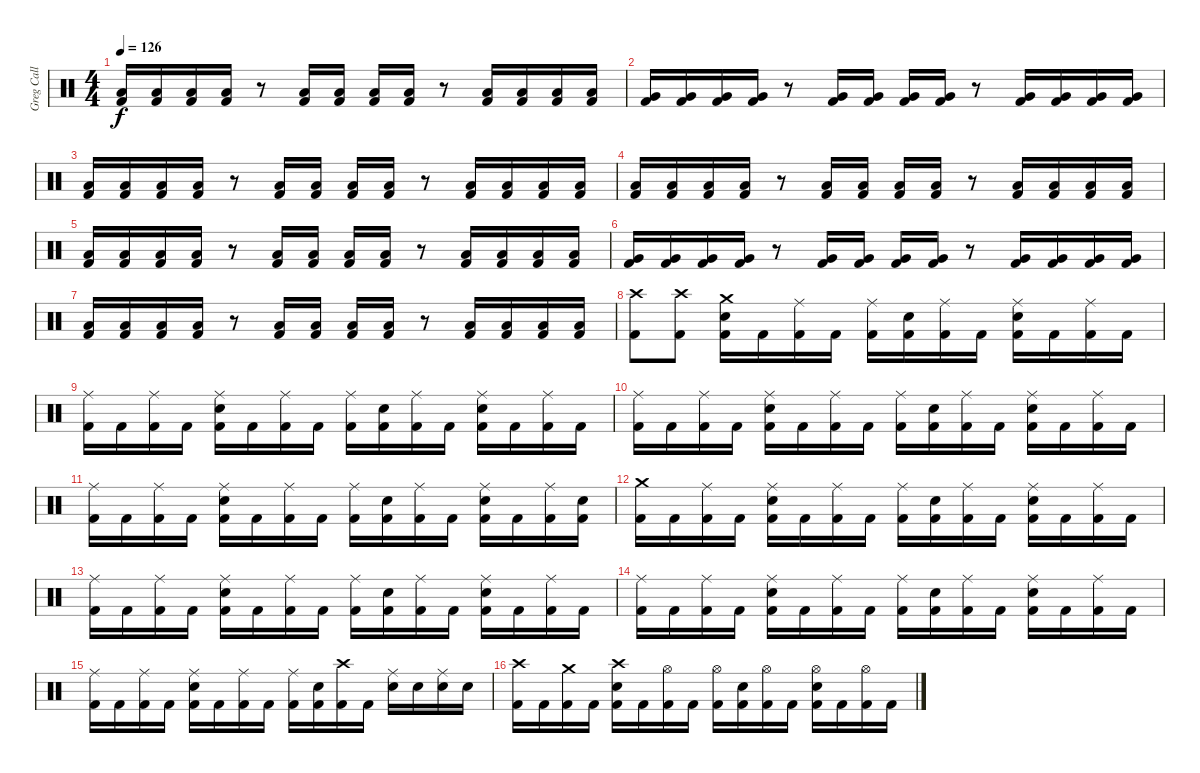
\track ("Greg Call (Drums)" "Greg Call ") {instrument percussion}
\staff {score}
\articulation defaults
\ts (4 4)
\tempo 126
\clef neutral
\ks c
("Low Floor Tom (hit)" "Kick (hit) 2").16{dy f} ("Low Floor Tom (hit)" "Kick (hit) 2").16 ("Low Floor Tom (hit)" "Kick (hit) 2").16 ("Low Floor Tom (hit)" "Kick (hit) 2").16 r.8 ("Low Floor Tom (hit)" "Kick (hit) 2").16 ("Low Floor Tom (hit)" "Kick (hit) 2").16 ("Low Floor Tom (hit)" "Kick (hit) 2").16 ("Low Floor Tom (hit)" "Kick (hit) 2").16 r.8 ("Low Floor Tom (hit)" "Kick (hit) 2").16 ("Low Floor Tom (hit)" "Kick (hit) 2").16 ("Low Floor Tom (hit)" "Kick (hit) 2").16 ("Low Floor Tom (hit)" "Kick (hit) 2").16 |
("Very Low Tom (hit)" "Kick (hit) 2").16 ("Very Low Tom (hit)" "Kick (hit) 2").16 ("Very Low Tom (hit)" "Kick (hit) 2").16 ("Very Low Tom (hit)" "Kick (hit) 2").16 r.8 ("Very Low Tom (hit)" "Kick (hit) 2").16 ("Very Low Tom (hit)" "Kick (hit) 2").16 ("Very Low Tom (hit)" "Kick (hit) 2").16 ("Very Low Tom (hit)" "Kick (hit) 2").16 r.8 ("Very Low Tom (hit)" "Kick (hit) 2").16 ("Very Low Tom (hit)" "Kick (hit) 2").16 ("Very Low Tom (hit)" "Kick (hit) 2").16 ("Very Low Tom (hit)" "Kick (hit) 2").16 |
("Low Tom (hit)" "Kick (hit) 2").16 ("Low Tom (hit)" "Kick (hit) 2").16 ("Low Tom (hit)" "Kick (hit) 2").16 ("Low Tom (hit)" "Kick (hit) 2").16 r.8 ("Low Tom (hit)" "Kick (hit) 2").16 ("Low Tom (hit)" "Kick (hit) 2").16 ("Low Tom (hit)" "Kick (hit) 2").16 ("Low Tom (hit)" "Kick (hit) 2").16 r.8 ("Low Tom (hit)" "Kick (hit) 2").16 ("Low Tom (hit)" "Kick (hit) 2").16 ("Low Tom (hit)" "Kick (hit) 2").16 ("Low Tom (hit)" "Kick (hit) 2").16 |
("Low Floor Tom (hit)" "Kick (hit) 2").16{volume 14} ("Low Floor Tom (hit)" "Kick (hit) 2").16 ("Low Floor Tom (hit)" "Kick (hit) 2").16 ("Low Floor Tom (hit)" "Kick (hit) 2").16 r.8 ("Low Floor Tom (hit)" "Kick (hit) 2").16 ("Low Floor Tom (hit)" "Kick (hit) 2").16 ("Low Floor Tom (hit)" "Kick (hit) 2").16 ("Low Floor Tom (hit)" "Kick (hit) 2").16 r.8 ("Low Floor Tom (hit)" "Kick (hit) 2").16 ("Low Floor Tom (hit)" "Kick (hit) 2").16 ("Low Floor Tom (hit)" "Kick (hit) 2").16 ("Low Floor Tom (hit)" "Kick (hit) 2").16 |
("Low Floor Tom (hit)" "Kick (hit) 2").16 ("Low Floor Tom (hit)" "Kick (hit) 2").16 ("Low Floor Tom (hit)" "Kick (hit) 2").16 ("Low Floor Tom (hit)" "Kick (hit) 2").16 r.8 ("Low Floor Tom (hit)" "Kick (hit) 2").16 ("Low Floor Tom (hit)" "Kick (hit) 2").16 ("Low Floor Tom (hit)" "Kick (hit) 2").16 ("Low Floor Tom (hit)" "Kick (hit) 2").16 r.8 ("Low Floor Tom (hit)" "Kick (hit) 2").16 ("Low Floor Tom (hit)" "Kick (hit) 2").16 ("Low Floor Tom (hit)" "Kick (hit) 2").16 ("Low Floor Tom (hit)" "Kick (hit) 2").16 |
("Very Low Tom (hit)" "Kick (hit) 2").16 ("Very Low Tom (hit)" "Kick (hit) 2").16 ("Very Low Tom (hit)" "Kick (hit) 2").16 ("Very Low Tom (hit)" "Kick (hit) 2").16 r.8 ("Very Low Tom (hit)" "Kick (hit) 2").16 ("Very Low Tom (hit)" "Kick (hit) 2").16 ("Very Low Tom (hit)" "Kick (hit) 2").16 ("Very Low Tom (hit)" "Kick (hit) 2").16 r.8 ("Very Low Tom (hit)" "Kick (hit) 2").16 ("Very Low Tom (hit)" "Kick (hit) 2").16 ("Very Low Tom (hit)" "Kick (hit) 2").16 ("Very Low Tom (hit)" "Kick (hit) 2").16 |
("Low Tom (hit)" "Kick (hit) 2").16 ("Low Tom (hit)" "Kick (hit) 2").16 ("Low Tom (hit)" "Kick (hit) 2").16 ("Low Tom (hit)" "Kick (hit) 2").16 r.8 ("Low Tom (hit)" "Kick (hit) 2").16 ("Low Tom (hit)" "Kick (hit) 2").16 ("Low Tom (hit)" "Kick (hit) 2").16 ("Low Tom (hit)" "Kick (hit) 2").16 r.8 ("Low Tom (hit)" "Kick (hit) 2").16 ("Low Tom (hit)" "Kick (hit) 2").16 ("Low Tom (hit)" "Kick (hit) 2").16 ("Low Tom (hit)" "Kick (hit) 2").16 |
("Crash high (hit)" "Kick (hit) 2").8 ("Crash high (hit)" "Kick (hit) 2").8 ("Crash medium (hit)" "Snare (hit) 2" "Kick (hit) 2").16 "Kick (hit) 2".16 ("Ride (middle)" "Kick (hit) 2").16 "Kick (hit) 2".16 ("Ride (middle)" "Kick (hit) 2").16 ("Snare (hit) 2" "Kick (hit) 2").16 ("Ride (middle)" "Kick (hit) 2").16 "Kick (hit) 2".16 ("Snare (hit) 2" "Ride (middle)" "Kick (hit) 2").16 "Kick (hit) 2".16 ("Ride (middle)" "Kick (hit) 2").16 "Kick (hit) 2".16 |
("Ride (middle)" "Kick (hit) 2").16 "Kick (hit) 2".16 ("Ride (middle)" "Kick (hit) 2").16 "Kick (hit) 2".16 ("Ride (middle)" "Snare (hit) 2" "Kick (hit) 2").16 "Kick (hit) 2".16 ("Ride (middle)" "Kick (hit) 2").16 "Kick (hit) 2".16 ("Ride (middle)" "Kick (hit) 2").16 ("Snare (hit) 2" "Kick (hit) 2").16 ("Ride (middle)" "Kick (hit) 2").16 "Kick (hit) 2".16 ("Ride (middle)" "Snare (hit) 2" "Kick (hit) 2").16 "Kick (hit) 2".16 ("Ride (middle)" "Kick (hit) 2").16 "Kick (hit) 2".16 |
("Ride (middle)" "Kick (hit) 2").16 "Kick (hit) 2".16 ("Ride (middle)" "Kick (hit) 2").16 "Kick (hit) 2".16 ("Ride (middle)" "Snare (hit) 2" "Kick (hit) 2").16 "Kick (hit) 2".16 ("Ride (middle)" "Kick (hit) 2").16 "Kick (hit) 2".16 ("Ride (middle)" "Kick (hit) 2").16 ("Snare (hit) 2" "Kick (hit) 2").16 ("Ride (middle)" "Kick (hit) 2").16 "Kick (hit) 2".16 ("Ride (middle)" "Snare (hit) 2" "Kick (hit) 2").16 "Kick (hit) 2".16 ("Ride (middle)" "Kick (hit) 2").16 "Kick (hit) 2".16 |
("Ride (middle)" "Kick (hit) 2").16 "Kick (hit) 2".16 ("Ride (middle)" "Kick (hit) 2").16 "Kick (hit) 2".16 ("Ride (middle)" "Snare (hit) 2" "Kick (hit) 2").16 "Kick (hit) 2".16 ("Ride (middle)" "Kick (hit) 2").16 "Kick (hit) 2".16 ("Ride (middle)" "Kick (hit) 2").16 ("Snare (hit) 2" "Kick (hit) 2").16 ("Ride (middle)" "Kick (hit) 2").16 "Kick (hit) 2".16 ("Ride (middle)" "Snare (hit) 2" "Kick (hit) 2").16 "Kick (hit) 2".16 ("Ride (middle)" "Kick (hit) 2").16 ("Snare (hit) 2" "Kick (hit) 2").16 |
("Crash medium (hit)" "Kick (hit) 2").16 "Kick (hit) 2".16 ("Ride (middle)" "Kick (hit) 2").16 "Kick (hit) 2".16 ("Ride (middle)" "Snare (hit) 2" "Kick (hit) 2").16 "Kick (hit) 2".16 ("Ride (middle)" "Kick (hit) 2").16 "Kick (hit) 2".16 ("Ride (middle)" "Kick (hit) 2").16 ("Snare (hit) 2" "Kick (hit) 2").16 ("Ride (middle)" "Kick (hit) 2").16 "Kick (hit) 2".16 ("Ride (middle)" "Snare (hit) 2" "Kick (hit) 2").16 "Kick (hit) 2".16 ("Ride (middle)" "Kick (hit) 2").16 "Kick (hit) 2".16 |
("Ride (middle)" "Kick (hit) 2").16 "Kick (hit) 2".16 ("Ride (middle)" "Kick (hit) 2").16 "Kick (hit) 2".16 ("Ride (middle)" "Snare (hit) 2" "Kick (hit) 2").16 "Kick (hit) 2".16 ("Ride (middle)" "Kick (hit) 2").16 "Kick (hit) 2".16 ("Ride (middle)" "Kick (hit) 2").16 ("Snare (hit) 2" "Kick (hit) 2").16 ("Ride (middle)" "Kick (hit) 2").16 "Kick (hit) 2".16 ("Ride (middle)" "Snare (hit) 2" "Kick (hit) 2").16 "Kick (hit) 2".16 ("Ride (middle)" "Kick (hit) 2").16 "Kick (hit) 2".16 |
("Ride (middle)" "Kick (hit) 2").16 "Kick (hit) 2".16 ("Ride (middle)" "Kick (hit) 2").16 "Kick (hit) 2".16 ("Ride (middle)" "Snare (hit) 2" "Kick (hit) 2").16 "Kick (hit) 2".16 ("Ride (middle)" "Kick (hit) 2").16 "Kick (hit) 2".16 ("Ride (middle)" "Kick (hit) 2").16 ("Snare (hit) 2" "Kick (hit) 2").16 ("Ride (middle)" "Kick (hit) 2").16 "Kick (hit) 2".16 ("Ride (middle)" "Snare (hit) 2" "Kick (hit) 2").16 "Kick (hit) 2".16 ("Ride (middle)" "Kick (hit) 2").16 "Kick (hit) 2".16 |
("Ride (middle)" "Kick (hit) 2").16 "Kick (hit) 2".16 ("Ride (middle)" "Kick (hit) 2").16 "Kick (hit) 2".16 ("Ride (middle)" "Snare (hit) 2" "Kick (hit) 2").16 "Kick (hit) 2".16 ("Ride (middle)" "Kick (hit) 2").16 "Kick (hit) 2".16 ("Ride (middle)" "Kick (hit) 2").16 ("Snare (hit) 2" "Kick (hit) 2").16 ("Crash high (hit)" "Kick (hit) 2").16 "Kick (hit) 2".16 ("Ride (middle)" "Snare (hit) 2").16 "Snare (hit) 2".16 ("Ride (middle)" "Snare (hit) 2").16 "Snare (hit) 2".16 |
("Crash high (hit)" "Kick (hit) 2").16 "Kick (hit) 2".16 ("Crash medium (hit)" "Kick (hit) 2").16 "Kick (hit) 2".16 ("Crash high (hit)" "Snare (hit) 2" "Kick (hit) 2").16 "Kick (hit) 2".16 ("Hi-Hat (open)" "Kick (hit) 2").16 "Kick (hit) 2".16 ("Hi-Hat (open)" "Kick (hit) 2").16 ("Snare (hit) 2" "Kick (hit) 2").16 ("Hi-Hat (open)" "Kick (hit) 2").16 "Kick (hit) 2".16 ("Hi-Hat (open)" "Snare (hit) 2" "Kick (hit) 2").16 "Kick (hit) 2".16 ("Hi-Hat (open)" "Kick (hit) 2").16 "Kick (hit) 2".16
